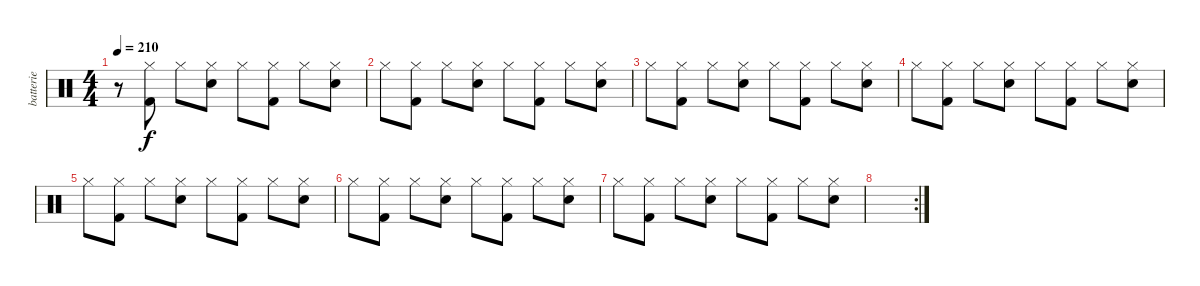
\track ("batterie" "batterie") {instrument percussion}
\staff {score}
\articulation defaults
\ts (4 4)
\tempo 210
\clef neutral
\ks c
r.8{dy f} ("Hi-Hat (closed)" "Kick (hit) 2").8 "Hi-Hat (closed)".8 ("Hi-Hat (closed)" "Electric Snare (hit)").8 "Hi-Hat (closed)".8 ("Hi-Hat (closed)" "Kick (hit) 2").8 "Hi-Hat (closed)".8 ("Hi-Hat (closed)" "Electric Snare (hit)").8 |
"Hi-Hat (closed)".8 ("Hi-Hat (closed)" "Kick (hit) 2").8 "Hi-Hat (closed)".8 ("Hi-Hat (closed)" "Electric Snare (hit)").8 "Hi-Hat (closed)".8 ("Hi-Hat (closed)" "Kick (hit) 2").8 "Hi-Hat (closed)".8 ("Hi-Hat (closed)" "Electric Snare (hit)").8 |
"Hi-Hat (closed)".8 ("Hi-Hat (closed)" "Kick (hit) 2").8 "Hi-Hat (closed)".8 ("Hi-Hat (closed)" "Electric Snare (hit)").8 "Hi-Hat (closed)".8 ("Hi-Hat (closed)" "Kick (hit) 2").8 "Hi-Hat (closed)".8 ("Hi-Hat (closed)" "Electric Snare (hit)").8 |
"Hi-Hat (closed)".8 ("Hi-Hat (closed)" "Kick (hit) 2").8 "Hi-Hat (closed)".8 ("Hi-Hat (closed)" "Electric Snare (hit)").8 "Hi-Hat (closed)".8 ("Hi-Hat (closed)" "Kick (hit) 2").8 "Hi-Hat (closed)".8 ("Hi-Hat (closed)" "Electric Snare (hit)").8 |
"Hi-Hat (closed)".8 ("Hi-Hat (closed)" "Kick (hit) 2").8 "Hi-Hat (closed)".8 ("Hi-Hat (closed)" "Electric Snare (hit)").8 "Hi-Hat (closed)".8 ("Hi-Hat (closed)" "Kick (hit) 2").8 "Hi-Hat (closed)".8 ("Hi-Hat (closed)" "Electric Snare (hit)").8 |
"Hi-Hat (closed)".8 ("Hi-Hat (closed)" "Kick (hit) 2").8 "Hi-Hat (closed)".8 ("Hi-Hat (closed)" "Electric Snare (hit)").8 "Hi-Hat (closed)".8 ("Hi-Hat (closed)" "Kick (hit) 2").8 "Hi-Hat (closed)".8 ("Hi-Hat (closed)" "Electric Snare (hit)").8 |
"Hi-Hat (closed)".8 ("Hi-Hat (closed)" "Kick (hit) 2").8 "Hi-Hat (closed)".8 ("Hi-Hat (closed)" "Electric Snare (hit)").8 "Hi-Hat (closed)".8 ("Hi-Hat (closed)" "Kick (hit) 2").8 "Hi-Hat (closed)".8 ("Hi-Hat (closed)" "Electric Snare (hit)").8 |
\rc 2
